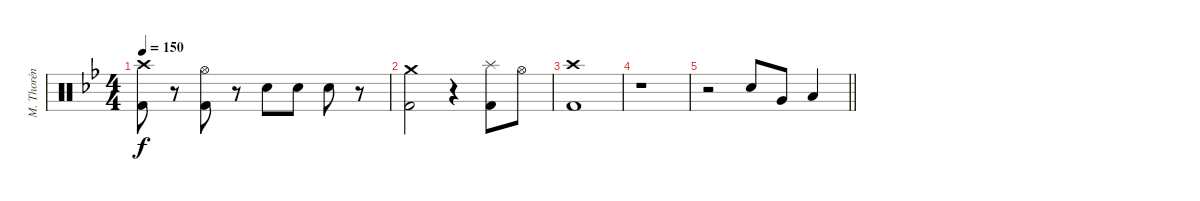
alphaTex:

\track ("M. Thorén (Drums)" "M. Thorén ") {instrument percussion}
\staff {score}
\articulation defaults
\ts (4 4)
\tempo 150
\clef neutral
\ks gminor
("Crash high (hit)" "Kick (hit) 2").8{dy f} r.8 ("Hi-Hat (open)" "Kick (hit) 2").8 r.8 "Electric Snare (hit)".8 "Electric Snare (hit)".8 "Electric Snare (hit)".8 r.8 |
("Crash medium (hit)" "Kick (hit) 2").2 r.4 ("Splash (hit)" "Kick (hit) 2").8 "Hi-Hat (open)".8 |
("Crash high (hit)" "Kick (hit) 2").1 |
r.1 |
\barLineRight lightlight
r.2 "Electric Snare (hit)".8 "Very Low Tom (hit)".8 "Low Floor Tom (hit)".4
